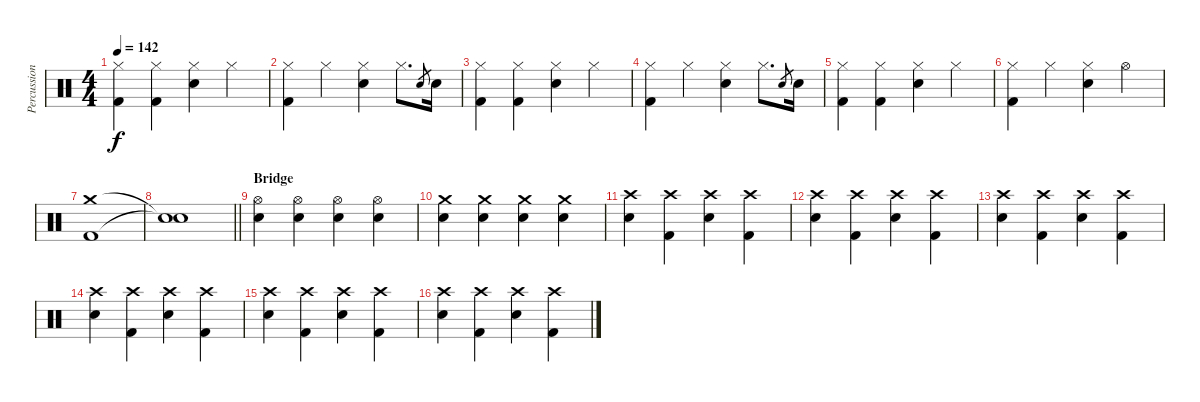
\track ("Percussions" "Percussion") {instrument percussion}
\staff {score}
\articulation defaults
\ts (4 4)
\tempo 142
\clef neutral
\ks c
("Hi-Hat (closed)" "Kick (hit) 2").4{dy f} ("Hi-Hat (closed)" "Kick (hit) 2").4 ("Hi-Hat (closed)" "Electric Snare (hit)").4 "Hi-Hat (closed)".4 |
("Hi-Hat (closed)" "Kick (hit) 2").4 "Hi-Hat (closed)".4 ("Hi-Hat (closed)" "Electric Snare (hit)").4 "Hi-Hat (closed)".8{d} "Electric Snare (hit)".8{gr} "Electric Snare (hit)".16 |
("Hi-Hat (closed)" "Kick (hit) 2").4 ("Hi-Hat (closed)" "Kick (hit) 2").4 ("Hi-Hat (closed)" "Electric Snare (hit)").4 "Hi-Hat (closed)".4 |
("Hi-Hat (closed)" "Kick (hit) 2").4 "Hi-Hat (closed)".4 ("Hi-Hat (closed)" "Electric Snare (hit)").4 "Hi-Hat (closed)".8{d} "Electric Snare (hit)".8{gr} "Electric Snare (hit)".16 |
("Hi-Hat (closed)" "Kick (hit) 2").4 ("Hi-Hat (closed)" "Kick (hit) 2").4 ("Hi-Hat (closed)" "Electric Snare (hit)").4 "Hi-Hat (closed)".4 |
("Hi-Hat (closed)" "Kick (hit) 2").4 "Hi-Hat (closed)".4 ("Hi-Hat (closed)" "Electric Snare (hit)").4 "Hi-Hat (open)".4 |
("Crash medium (hit)" "Kick (hit) 2").1 |
\barLineRight lightlight
("Snare (hit)"{t} "Snare (hit)"{t}).1 |
\section ("" "Bridge")
("Hi-Hat (open)" "Electric Snare (hit)").4 ("Hi-Hat (open)" "Electric Snare (hit)").4 ("Hi-Hat (open)" "Electric Snare (hit)").4 ("Hi-Hat (open)" "Electric Snare (hit)").4 |
("Crash medium (hit)" "Electric Snare (hit)").4 ("Crash medium (hit)" "Electric Snare (hit)").4 ("Crash medium (hit)" "Electric Snare (hit)").4 ("Crash medium (hit)" "Electric Snare (hit)").4 |
("Crash high (hit)" "Electric Snare (hit)").4 ("Crash high (hit)" "Kick (hit) 2").4 ("Crash high (hit)" "Electric Snare (hit)").4 ("Crash high (hit)" "Kick (hit) 2").4 |
("Crash high (hit)" "Electric Snare (hit)").4 ("Crash high (hit)" "Kick (hit) 2").4 ("Crash high (hit)" "Electric Snare (hit)").4 ("Crash high (hit)" "Kick (hit) 2").4 |
("Crash high (hit)" "Electric Snare (hit)").4 ("Crash high (hit)" "Kick (hit) 2").4 ("Crash high (hit)" "Electric Snare (hit)").4 ("Crash high (hit)" "Kick (hit) 2").4 |
("Crash high (hit)" "Electric Snare (hit)").4 ("Crash high (hit)" "Kick (hit) 2").4 ("Crash high (hit)" "Electric Snare (hit)").4 ("Crash high (hit)" "Kick (hit) 2").4 |
("Crash high (hit)" "Electric Snare (hit)").4 ("Crash high (hit)" "Kick (hit) 2").4 ("Crash high (hit)" "Electric Snare (hit)").4 ("Crash high (hit)" "Kick (hit) 2").4 |
("Crash high (hit)" "Electric Snare (hit)").4 ("Crash high (hit)" "Kick (hit) 2").4 ("Crash high (hit)" "Electric Snare (hit)").4 ("Crash high (hit)" "Kick (hit) 2").4
